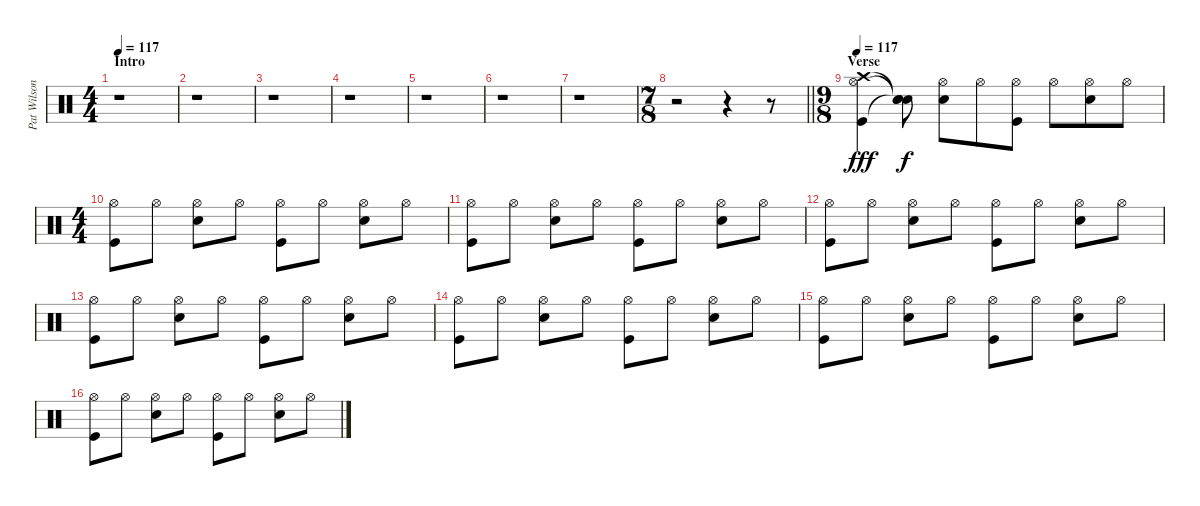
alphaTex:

\track ("Pat Wilson" "Pat Wilson") {instrument percussion}
\staff {score}
\articulation defaults
\ts (4 4)
\section ("" "Intro")
\tempo 117
\tempo 110
\tempo 117
\clef neutral
\ks c
r.1{dy fff} |
r.1 |
r.1 |
r.1 |
r.1 |
r.1 |
r.1 |
\ts (7 8)
\barLineRight lightlight
r.2 r.4 r.8 |
\ts (9 8)
\section ("" "Verse")
\tempo 117
("Crash high (hit)" "Hi-Hat (open)" "Kick (hit)").4 ("Snare (hit)"{t} "Snare (hit)"{t} "Snare (hit)"{t}).8{dy f} ("Hi-Hat (open)" "Snare (hit) 2").8 "Hi-Hat (open)".8 ("Hi-Hat (open)" "Kick (hit)").8 "Hi-Hat (open)".8 ("Hi-Hat (open)" "Snare (hit) 2").8 "Hi-Hat (open)".8 |
\ts (4 4)
("Hi-Hat (open)" "Kick (hit)").8 "Hi-Hat (open)".8 ("Hi-Hat (open)" "Snare (hit) 2").8 "Hi-Hat (open)".8 ("Hi-Hat (open)" "Kick (hit)").8 "Hi-Hat (open)".8 ("Hi-Hat (open)" "Snare (hit) 2").8 "Hi-Hat (open)".8 |
("Hi-Hat (open)" "Kick (hit)").8 "Hi-Hat (open)".8 ("Hi-Hat (open)" "Snare (hit) 2").8 "Hi-Hat (open)".8 ("Hi-Hat (open)" "Kick (hit)").8 "Hi-Hat (open)".8 ("Hi-Hat (open)" "Snare (hit) 2").8 "Hi-Hat (open)".8 |
("Hi-Hat (open)" "Kick (hit)").8 "Hi-Hat (open)".8 ("Hi-Hat (open)" "Snare (hit) 2").8 "Hi-Hat (open)".8 ("Hi-Hat (open)" "Kick (hit)").8 "Hi-Hat (open)".8 ("Hi-Hat (open)" "Snare (hit) 2").8 "Hi-Hat (open)".8 |
("Hi-Hat (open)" "Kick (hit)").8 "Hi-Hat (open)".8 ("Hi-Hat (open)" "Snare (hit) 2").8 "Hi-Hat (open)".8 ("Hi-Hat (open)" "Kick (hit)").8 "Hi-Hat (open)".8 ("Hi-Hat (open)" "Snare (hit) 2").8 "Hi-Hat (open)".8 |
("Hi-Hat (open)" "Kick (hit)").8 "Hi-Hat (open)".8 ("Hi-Hat (open)" "Snare (hit) 2").8 "Hi-Hat (open)".8 ("Hi-Hat (open)" "Kick (hit)").8 "Hi-Hat (open)".8 ("Hi-Hat (open)" "Snare (hit) 2").8 "Hi-Hat (open)".8 |
("Hi-Hat (open)" "Kick (hit)").8 "Hi-Hat (open)".8 ("Hi-Hat (open)" "Snare (hit) 2").8 "Hi-Hat (open)".8 ("Hi-Hat (open)" "Kick (hit)").8 "Hi-Hat (open)".8 ("Hi-Hat (open)" "Snare (hit) 2").8 "Hi-Hat (open)".8 |
("Hi-Hat (open)" "Kick (hit)").8 "Hi-Hat (open)".8 ("Hi-Hat (open)" "Snare (hit) 2").8 "Hi-Hat (open)".8 ("Hi-Hat (open)" "Kick (hit)").8 "Hi-Hat (open)".8 ("Hi-Hat (open)" "Snare (hit) 2").8 "Hi-Hat (open)".8
